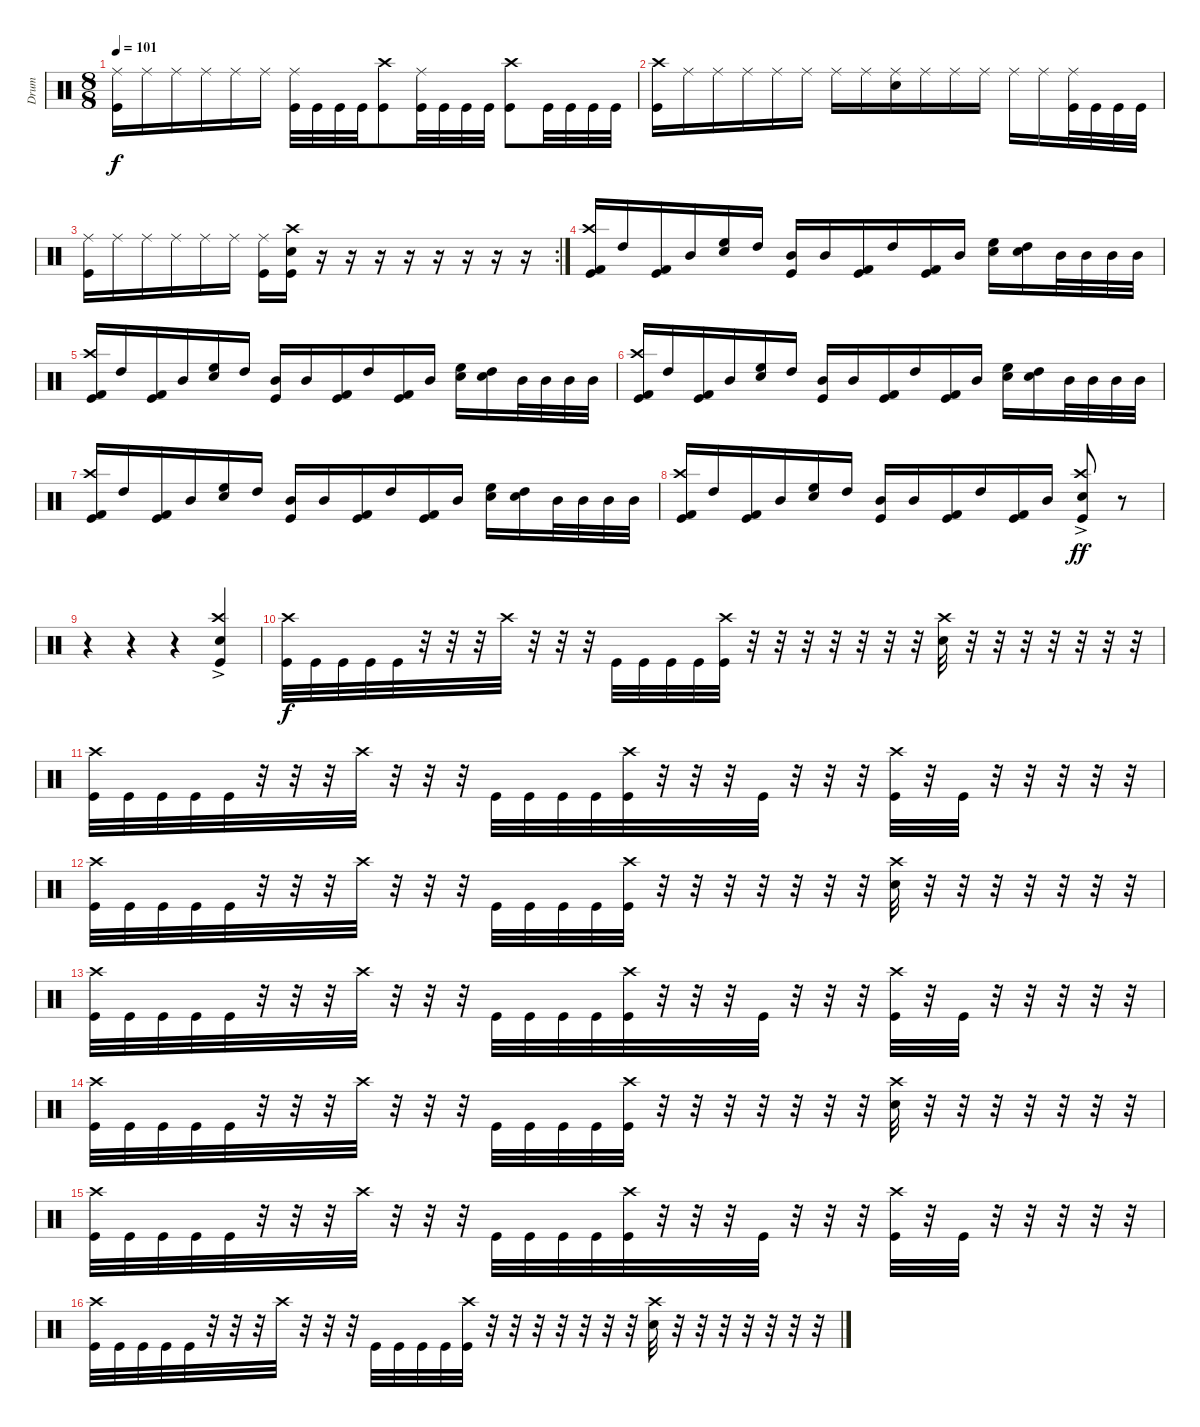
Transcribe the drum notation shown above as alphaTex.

\track ("Drum" "Drum") {instrument percussion}
\staff {score}
\articulation defaults
\ts (8 8)
\tempo 101
\clef neutral
\ks c
("Ride (middle)" "Kick (hit)").16{dy f} "Ride (middle)".16 "Ride (middle)".16 "Ride (middle)".16 "Ride (middle)".16 "Ride (middle)".16 ("Ride (middle)" "Kick (hit)").32 "Kick (hit)".32 "Kick (hit)".32 "Kick (hit)".32 ("Crash high (hit)" "Kick (hit)").8 ("Ride (middle)" "Kick (hit)").32 "Kick (hit)".32 "Kick (hit)".32 "Kick (hit)".32 ("Crash high (hit)" "Kick (hit)").8 "Kick (hit)".32 "Kick (hit)".32 "Kick (hit)".32 "Kick (hit)".32 |
("Crash high (hit)" "Kick (hit)").16 "Ride (middle)".16 "Ride (middle)".16 "Ride (middle)".16 "Ride (middle)".16 "Ride (middle)".16 "Ride (middle)".16 "Ride (middle)".16 ("Ride (middle)" "Snare (hit) 2").16 "Ride (middle)".16 "Ride (middle)".16 "Ride (middle)".16 "Ride (middle)".16 "Ride (middle)".16 ("Ride (middle)" "Kick (hit)").32 "Kick (hit)".32 "Kick (hit)".32 "Kick (hit)".32 |
\rc 2
("Ride (middle)" "Kick (hit)").16 "Ride (middle)".16 "Ride (middle)".16 "Ride (middle)".16 "Ride (middle)".16 "Ride (middle)".16 ("Ride (middle)" "Kick (hit)").16 ("Crash high (hit)" "Snare (hit) 2" "Kick (hit)").16 r.16 r.16 r.16 r.16 r.16 r.16 r.16 r.16 |
("Crash high (hit)" "Kick (hit)" "Kick (hit) 2").16 "High Tom (hit)".16 ("Kick (hit)" "Kick (hit) 2").16 "Mid Tom (hit)".16 ("Electric Snare (hit)" "High Floor Tom (hit)").16 "High Tom (hit)".16 ("Kick (hit)" "Mid Tom (hit)").16 "Mid Tom (hit)".16 ("Kick (hit)" "Kick (hit) 2").16 "High Tom (hit)".16 ("Kick (hit)" "Kick (hit) 2").16 "Mid Tom (hit)".16 ("Electric Snare (hit)" "High Floor Tom (hit)").16 ("Electric Snare (hit)" "High Tom (hit)").16 "Mid Tom (hit)".32 "Mid Tom (hit)".32 "Mid Tom (hit)".32 "Mid Tom (hit)".32 |
("Crash high (hit)" "Kick (hit)" "Kick (hit) 2").16 "High Tom (hit)".16 ("Kick (hit)" "Kick (hit) 2").16 "Mid Tom (hit)".16 ("Electric Snare (hit)" "High Floor Tom (hit)").16 "High Tom (hit)".16 ("Kick (hit)" "Mid Tom (hit)").16 "Mid Tom (hit)".16 ("Kick (hit)" "Kick (hit) 2").16 "High Tom (hit)".16 ("Kick (hit)" "Kick (hit) 2").16 "Mid Tom (hit)".16 ("Electric Snare (hit)" "High Floor Tom (hit)").16 ("Electric Snare (hit)" "High Tom (hit)").16 "Mid Tom (hit)".32 "Mid Tom (hit)".32 "Mid Tom (hit)".32 "Mid Tom (hit)".32 |
("Crash high (hit)" "Kick (hit)" "Kick (hit) 2").16 "High Tom (hit)".16 ("Kick (hit)" "Kick (hit) 2").16 "Mid Tom (hit)".16 ("Electric Snare (hit)" "High Floor Tom (hit)").16 "High Tom (hit)".16 ("Kick (hit)" "Mid Tom (hit)").16 "Mid Tom (hit)".16 ("Kick (hit)" "Kick (hit) 2").16 "High Tom (hit)".16 ("Kick (hit)" "Kick (hit) 2").16 "Mid Tom (hit)".16 ("Electric Snare (hit)" "High Floor Tom (hit)").16 ("Electric Snare (hit)" "High Tom (hit)").16 "Mid Tom (hit)".32 "Mid Tom (hit)".32 "Mid Tom (hit)".32 "Mid Tom (hit)".32 |
("Crash high (hit)" "Kick (hit)" "Kick (hit) 2").16 "High Tom (hit)".16 ("Kick (hit)" "Kick (hit) 2").16 "Mid Tom (hit)".16 ("Electric Snare (hit)" "High Floor Tom (hit)").16 "High Tom (hit)".16 ("Kick (hit)" "Mid Tom (hit)").16 "Mid Tom (hit)".16 ("Kick (hit)" "Kick (hit) 2").16 "High Tom (hit)".16 ("Kick (hit)" "Kick (hit) 2").16 "Mid Tom (hit)".16 ("Electric Snare (hit)" "High Floor Tom (hit)").16 ("Electric Snare (hit)" "High Tom (hit)").16 "Mid Tom (hit)".32 "Mid Tom (hit)".32 "Mid Tom (hit)".32 "Mid Tom (hit)".32 |
("Crash high (hit)" "Kick (hit)" "Kick (hit) 2").16 "High Tom (hit)".16 ("Kick (hit)" "Kick (hit) 2").16 "Mid Tom (hit)".16 ("Electric Snare (hit)" "High Floor Tom (hit)").16 "High Tom (hit)".16 ("Kick (hit)" "Mid Tom (hit)").16 "Mid Tom (hit)".16 ("Kick (hit)" "Kick (hit) 2").16 "High Tom (hit)".16 ("Kick (hit)" "Kick (hit) 2").16 "Mid Tom (hit)".16 ("Kick (hit)" "Electric Snare (hit)" "Crash high (hit)"{ac}).8{dy ff} r.8 |
r.4 r.4 r.4 ("Kick (hit)" "Electric Snare (hit)" "Crash high (hit)"{ac}).4 |
("Crash high (hit)" "Kick (hit)").32{dy f} "Kick (hit)".32 "Kick (hit)".32 "Kick (hit)".32 "Kick (hit)".32 r.32 r.32 r.32 "Crash high (hit)".32 r.32 r.32 r.32 "Kick (hit)".32 "Kick (hit)".32 "Kick (hit)".32 "Kick (hit)".32 ("Crash high (hit)" "Kick (hit)").32 r.32 r.32 r.32 r.32 r.32 r.32 r.32 ("Crash high (hit)" "Electric Snare (hit)").32 r.32 r.32 r.32 r.32 r.32 r.32 r.32 |
("Crash high (hit)" "Kick (hit)").32 "Kick (hit)".32 "Kick (hit)".32 "Kick (hit)".32 "Kick (hit)".32 r.32 r.32 r.32 "Crash high (hit)".32 r.32 r.32 r.32 "Kick (hit)".32 "Kick (hit)".32 "Kick (hit)".32 "Kick (hit)".32 ("Crash high (hit)" "Kick (hit)").32 r.32 r.32 r.32 "Kick (hit)".32 r.32 r.32 r.32 ("Crash high (hit)" "Kick (hit)").32 r.32 "Kick (hit)".32 r.32 r.32 r.32 r.32 r.32 |
("Crash high (hit)" "Kick (hit)").32 "Kick (hit)".32 "Kick (hit)".32 "Kick (hit)".32 "Kick (hit)".32 r.32 r.32 r.32 "Crash high (hit)".32 r.32 r.32 r.32 "Kick (hit)".32 "Kick (hit)".32 "Kick (hit)".32 "Kick (hit)".32 ("Crash high (hit)" "Kick (hit)").32 r.32 r.32 r.32 r.32 r.32 r.32 r.32 ("Crash high (hit)" "Electric Snare (hit)").32 r.32 r.32 r.32 r.32 r.32 r.32 r.32 |
("Crash high (hit)" "Kick (hit)").32 "Kick (hit)".32 "Kick (hit)".32 "Kick (hit)".32 "Kick (hit)".32 r.32 r.32 r.32 "Crash high (hit)".32 r.32 r.32 r.32 "Kick (hit)".32 "Kick (hit)".32 "Kick (hit)".32 "Kick (hit)".32 ("Crash high (hit)" "Kick (hit)").32 r.32 r.32 r.32 "Kick (hit)".32 r.32 r.32 r.32 ("Crash high (hit)" "Kick (hit)").32 r.32 "Kick (hit)".32 r.32 r.32 r.32 r.32 r.32 |
("Crash high (hit)" "Kick (hit)").32 "Kick (hit)".32 "Kick (hit)".32 "Kick (hit)".32 "Kick (hit)".32 r.32 r.32 r.32 "Crash high (hit)".32 r.32 r.32 r.32 "Kick (hit)".32 "Kick (hit)".32 "Kick (hit)".32 "Kick (hit)".32 ("Crash high (hit)" "Kick (hit)").32 r.32 r.32 r.32 r.32 r.32 r.32 r.32 ("Crash high (hit)" "Electric Snare (hit)").32 r.32 r.32 r.32 r.32 r.32 r.32 r.32 |
("Crash high (hit)" "Kick (hit)").32 "Kick (hit)".32 "Kick (hit)".32 "Kick (hit)".32 "Kick (hit)".32 r.32 r.32 r.32 "Crash high (hit)".32 r.32 r.32 r.32 "Kick (hit)".32 "Kick (hit)".32 "Kick (hit)".32 "Kick (hit)".32 ("Crash high (hit)" "Kick (hit)").32 r.32 r.32 r.32 "Kick (hit)".32 r.32 r.32 r.32 ("Crash high (hit)" "Kick (hit)").32 r.32 "Kick (hit)".32 r.32 r.32 r.32 r.32 r.32 |
("Crash high (hit)" "Kick (hit)").32 "Kick (hit)".32 "Kick (hit)".32 "Kick (hit)".32 "Kick (hit)".32 r.32 r.32 r.32 "Crash high (hit)".32 r.32 r.32 r.32 "Kick (hit)".32 "Kick (hit)".32 "Kick (hit)".32 "Kick (hit)".32 ("Crash high (hit)" "Kick (hit)").32 r.32 r.32 r.32 r.32 r.32 r.32 r.32 ("Crash high (hit)" "Electric Snare (hit)").32 r.32 r.32 r.32 r.32 r.32 r.32 r.32
